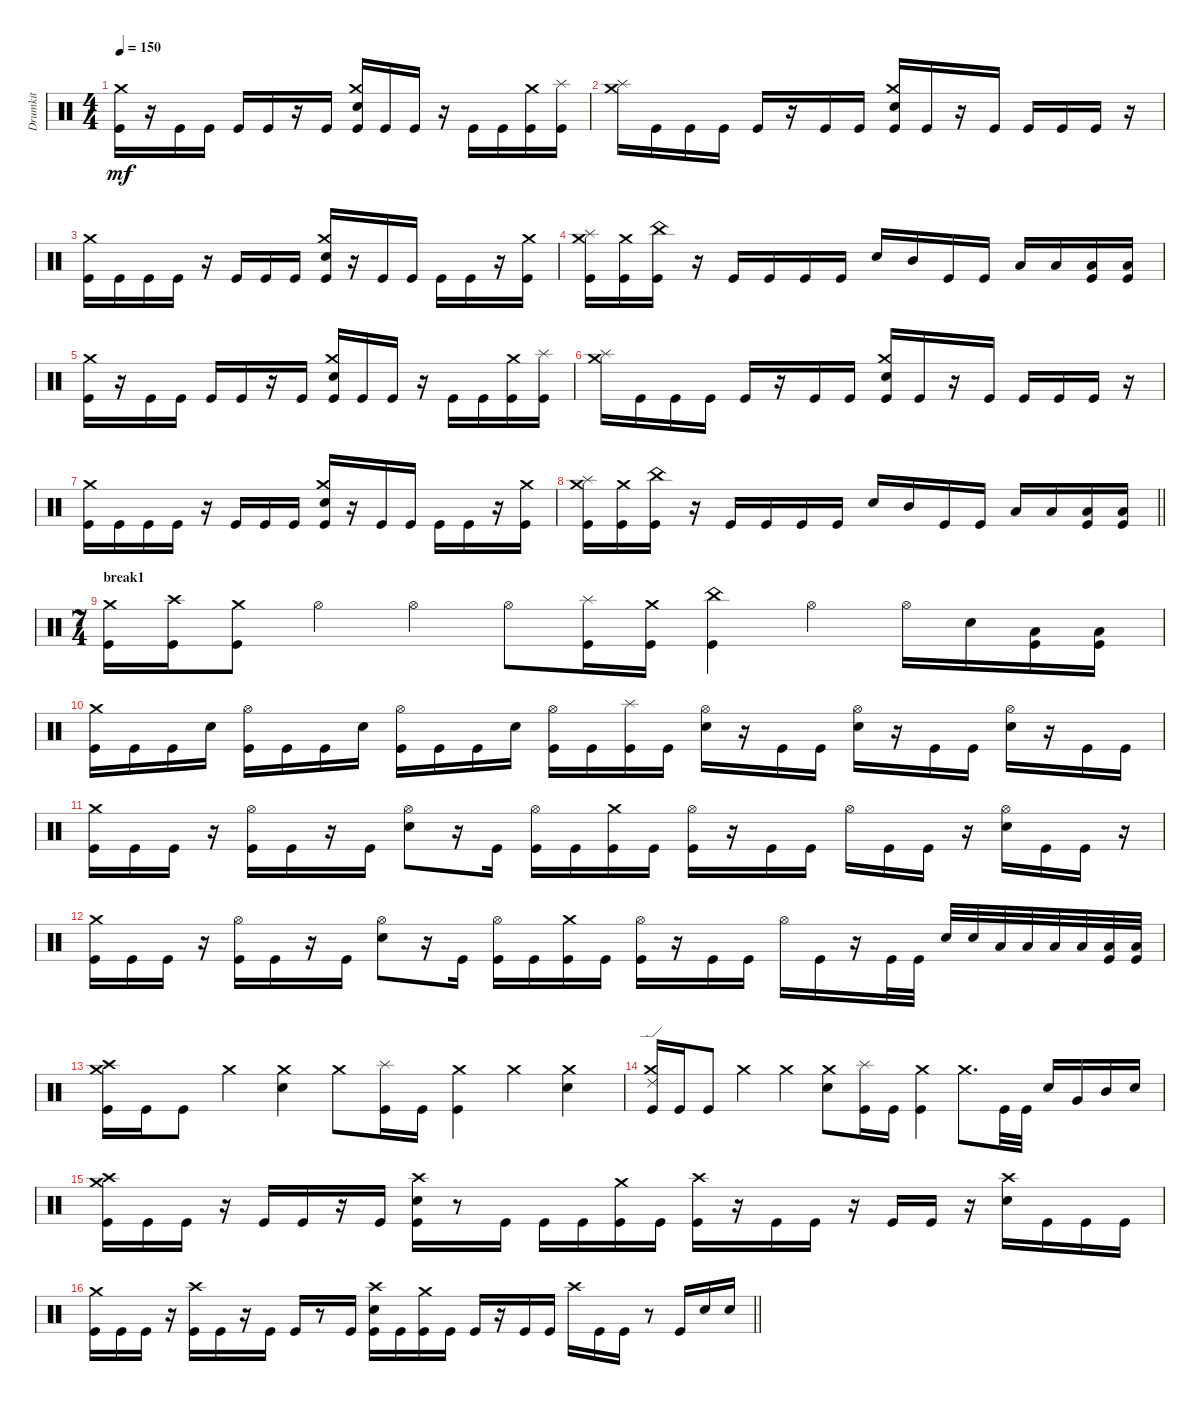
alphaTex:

\track ("Drumkit" "Drumkit") {instrument percussion}
\staff {score}
\articulation defaults
\ts (4 4)
\tempo 150
\clef neutral
\ks c
("Kick (hit)" "Crash medium (hit)").16{dy mf} r.16 "Kick (hit)".16 "Kick (hit)".16 "Kick (hit)".16 "Kick (hit)".16 r.16 "Kick (hit)".16 ("Crash medium (hit)" "Snare (hit) 2" "Kick (hit)").16 "Kick (hit)".16 "Kick (hit)".16 r.16 "Kick (hit)".16 "Kick (hit)".16 ("Crash medium (hit)" "Kick (hit)").16 ("Splash (hit)" "Kick (hit)").16 |
("Crash medium (hit)" "Splash (hit)").16 "Kick (hit)".16 "Kick (hit)".16 "Kick (hit)".16 "Kick (hit)".16 r.16 "Kick (hit)".16 "Kick (hit)".16 ("Crash medium (hit)" "Snare (hit) 2" "Kick (hit)").16 "Kick (hit)".16 r.16 "Kick (hit)".16 "Kick (hit)".16 "Kick (hit)".16 "Kick (hit)".16 r.16 |
("Kick (hit)" "Crash medium (hit)").16 "Kick (hit)".16 "Kick (hit)".16 "Kick (hit)".16 r.16 "Kick (hit)".16 "Kick (hit)".16 "Kick (hit)".16 ("Kick (hit)" "Crash medium (hit)" "Snare (hit) 2").16 r.16 "Kick (hit)".16 "Kick (hit)".16 "Kick (hit)".16 "Kick (hit)".16 r.16 ("Kick (hit)" "Crash medium (hit)").16 |
("Kick (hit)" "Crash medium (hit)" "Splash (hit)").16 ("Crash medium (hit)" "Kick (hit)").16 ("Kick (hit)" "China (hit)").16 r.16 "Kick (hit)".16 "Kick (hit)".16 "Kick (hit)".16 "Kick (hit)".16 "Snare (hit) 2".16 "Mid Tom (hit)".16 "Kick (hit)".16 "Kick (hit)".16 "Low Tom (hit)".16 "Low Tom (hit)".16 ("Kick (hit)" "Low Floor Tom (hit)").16 ("Kick (hit)" "Low Floor Tom (hit)").16 |
("Kick (hit)" "Crash medium (hit)").16 r.16 "Kick (hit)".16 "Kick (hit)".16 "Kick (hit)".16 "Kick (hit)".16 r.16 "Kick (hit)".16 ("Crash medium (hit)" "Snare (hit) 2" "Kick (hit)").16 "Kick (hit)".16 "Kick (hit)".16 r.16 "Kick (hit)".16 "Kick (hit)".16 ("Crash medium (hit)" "Kick (hit)").16 ("Splash (hit)" "Kick (hit)").16 |
("Crash medium (hit)" "Splash (hit)").16 "Kick (hit)".16 "Kick (hit)".16 "Kick (hit)".16 "Kick (hit)".16 r.16 "Kick (hit)".16 "Kick (hit)".16 ("Crash medium (hit)" "Snare (hit) 2" "Kick (hit)").16 "Kick (hit)".16 r.16 "Kick (hit)".16 "Kick (hit)".16 "Kick (hit)".16 "Kick (hit)".16 r.16 |
("Kick (hit)" "Crash medium (hit)").16 "Kick (hit)".16 "Kick (hit)".16 "Kick (hit)".16 r.16 "Kick (hit)".16 "Kick (hit)".16 "Kick (hit)".16 ("Kick (hit)" "Crash medium (hit)" "Snare (hit) 2").16 r.16 "Kick (hit)".16 "Kick (hit)".16 "Kick (hit)".16 "Kick (hit)".16 r.16 ("Kick (hit)" "Crash medium (hit)").16 |
\barLineRight lightlight
("Kick (hit)" "Crash medium (hit)" "Splash (hit)").16 ("Crash medium (hit)" "Kick (hit)").16 ("Kick (hit)" "China (hit)").16 r.16 "Kick (hit)".16 "Kick (hit)".16 "Kick (hit)".16 "Kick (hit)".16 "Snare (hit) 2".16 "Mid Tom (hit)".16 "Kick (hit)".16 "Kick (hit)".16 "Low Tom (hit)".16 "Low Tom (hit)".16 ("Kick (hit)" "Low Floor Tom (hit)").16 ("Kick (hit)" "Low Floor Tom (hit)").16 |
\ts (7 4)
\section ("" "break1")
("Kick (hit)" "Crash medium (hit)").16 ("Kick (hit)" "Crash high (hit)").16 ("Kick (hit)" "Crash medium (hit)").8 "Hi-Hat (open)".4 "Hi-Hat (open)".4 "Hi-Hat (open)".8 ("Kick (hit)" "Splash (hit)").16 ("Kick (hit)" "Crash medium (hit)").16 ("Kick (hit)" "China (hit)").4 "Hi-Hat (open)".4 "Hi-Hat (open)".16 "Snare (hit) 2".16 ("Low Floor Tom (hit)" "Kick (hit)").16 ("Low Floor Tom (hit)" "Kick (hit)").16 |
("Kick (hit)" "Crash medium (hit)").16 "Kick (hit)".16 "Kick (hit)".16 "Snare (hit) 2".16 ("Kick (hit)" "Hi-Hat (open)").16 "Kick (hit)".16 "Kick (hit)".16 "Snare (hit) 2".16 ("Kick (hit)" "Hi-Hat (open)").16 "Kick (hit)".16 "Kick (hit)".16 "Snare (hit) 2".16 ("Kick (hit)" "Hi-Hat (open)").16 "Kick (hit)".16 ("Kick (hit)" "Splash (hit)").16 "Kick (hit)".16 ("Hi-Hat (open)" "Snare (hit) 2").16 r.16 "Kick (hit)".16 "Kick (hit)".16 ("Hi-Hat (open)" "Snare (hit) 2").16 r.16 "Kick (hit)".16 "Kick (hit)".16 ("Hi-Hat (open)" "Snare (hit) 2").16 r.16 "Kick (hit)".16 "Kick (hit)".16 |
("Kick (hit)" "Crash medium (hit)").16 "Kick (hit)".16 "Kick (hit)".16 r.16 ("Kick (hit)" "Hi-Hat (open)").16 "Kick (hit)".16 r.16 "Kick (hit)".16 ("Hi-Hat (open)" "Snare (hit) 2").8 r.16 "Kick (hit)".16 ("Kick (hit)" "Hi-Hat (open)").16 "Kick (hit)".16 ("Kick (hit)" "Crash medium (hit)").16 "Kick (hit)".16 ("Kick (hit)" "Hi-Hat (open)").16 r.16 "Kick (hit)".16 "Kick (hit)".16 "Hi-Hat (open)".16 "Kick (hit)".16 "Kick (hit)".16 r.16 ("Hi-Hat (open)" "Snare (hit) 2").16 "Kick (hit)".16 "Kick (hit)".16 r.16 |
("Kick (hit)" "Crash medium (hit)").16 "Kick (hit)".16 "Kick (hit)".16 r.16 ("Kick (hit)" "Hi-Hat (open)").16 "Kick (hit)".16 r.16 "Kick (hit)".16 ("Hi-Hat (open)" "Snare (hit) 2").8 r.16 "Kick (hit)".16 ("Kick (hit)" "Hi-Hat (open)").16 "Kick (hit)".16 ("Kick (hit)" "Crash medium (hit)").16 "Kick (hit)".16 ("Kick (hit)" "Hi-Hat (open)").16 r.16 "Kick (hit)".16 "Kick (hit)".16 "Hi-Hat (open)".16 "Kick (hit)".16 r.16 "Kick (hit)".32 "Kick (hit)".32 "Snare (hit) 2".32 "Snare (hit) 2".32 "Low Tom (hit)".32 "Low Tom (hit)".32 "Low Tom (hit)".32 "Low Tom (hit)".32 ("Kick (hit)" "Low Floor Tom (hit)").32 ("Low Floor Tom (hit)" "Kick (hit)").32 |
("Kick (hit)" "Crash medium (hit)" "Crash high (hit)").16 "Kick (hit)".16 "Kick (hit)".8 "Crash medium (hit)".4 ("Crash medium (hit)" "Snare (hit) 2").4 "Crash medium (hit)".8 ("Kick (hit)" "Splash (hit)").16 "Kick (hit)".16 ("Kick (hit)" "Crash medium (hit)").4 "Crash medium (hit)".4 ("Crash medium (hit)" "Snare (hit) 2").4 |
("Kick (hit)" "Crash medium (hit)" "Ride (edge) 2").16 "Kick (hit)".16 "Kick (hit)".8 "Crash medium (hit)".4 "Crash medium (hit)".4 ("Crash medium (hit)" "Snare (hit) 2").8 ("Kick (hit)" "Splash (hit)").16 "Kick (hit)".16 ("Kick (hit)" "Crash medium (hit)").4 "Crash medium (hit)".8{d} "Kick (hit)".32 "Kick (hit)".32 "Snare (hit) 2".16 "Very Low Tom (hit)".16 "Mid Tom (hit)".16 "Snare (hit) 2".16 |
("Kick (hit)" "Crash high (hit)" "Crash medium (hit)").16 "Kick (hit)".16 "Kick (hit)".16 r.16 "Kick (hit)".16 "Kick (hit)".16 r.16 "Kick (hit)".16 ("Kick (hit)" "Crash high (hit)" "Snare (hit) 2").16 r.8 "Kick (hit)".16 "Kick (hit)".16 "Kick (hit)".16 ("Kick (hit)" "Crash medium (hit)").16 "Kick (hit)".16 ("Kick (hit)" "Crash high (hit)").16 r.16 "Kick (hit)".16 "Kick (hit)".16 r.16 "Kick (hit)".16 "Kick (hit)".16 r.16 ("Crash high (hit)" "Snare (hit) 2").16 "Kick (hit)".16 "Kick (hit)".16 "Kick (hit)".16 |
\barLineRight lightlight
("Kick (hit)" "Crash medium (hit)").16 "Kick (hit)".16 "Kick (hit)".16 r.16 ("Kick (hit)" "Crash high (hit)").16 "Kick (hit)".16 r.16 "Kick (hit)".16 "Kick (hit)".16 r.8 "Kick (hit)".16 ("Kick (hit)" "Crash high (hit)" "Snare (hit) 2").16 "Kick (hit)".16 ("Kick (hit)" "Crash medium (hit)").16 "Kick (hit)".16 "Kick (hit)".16 r.16 "Kick (hit)".16 "Kick (hit)".16 "Crash high (hit)".16 "Kick (hit)".16 "Kick (hit)".16 r.8 "Kick (hit)".16 "Snare (hit) 2".16 "Snare (hit) 2".16
